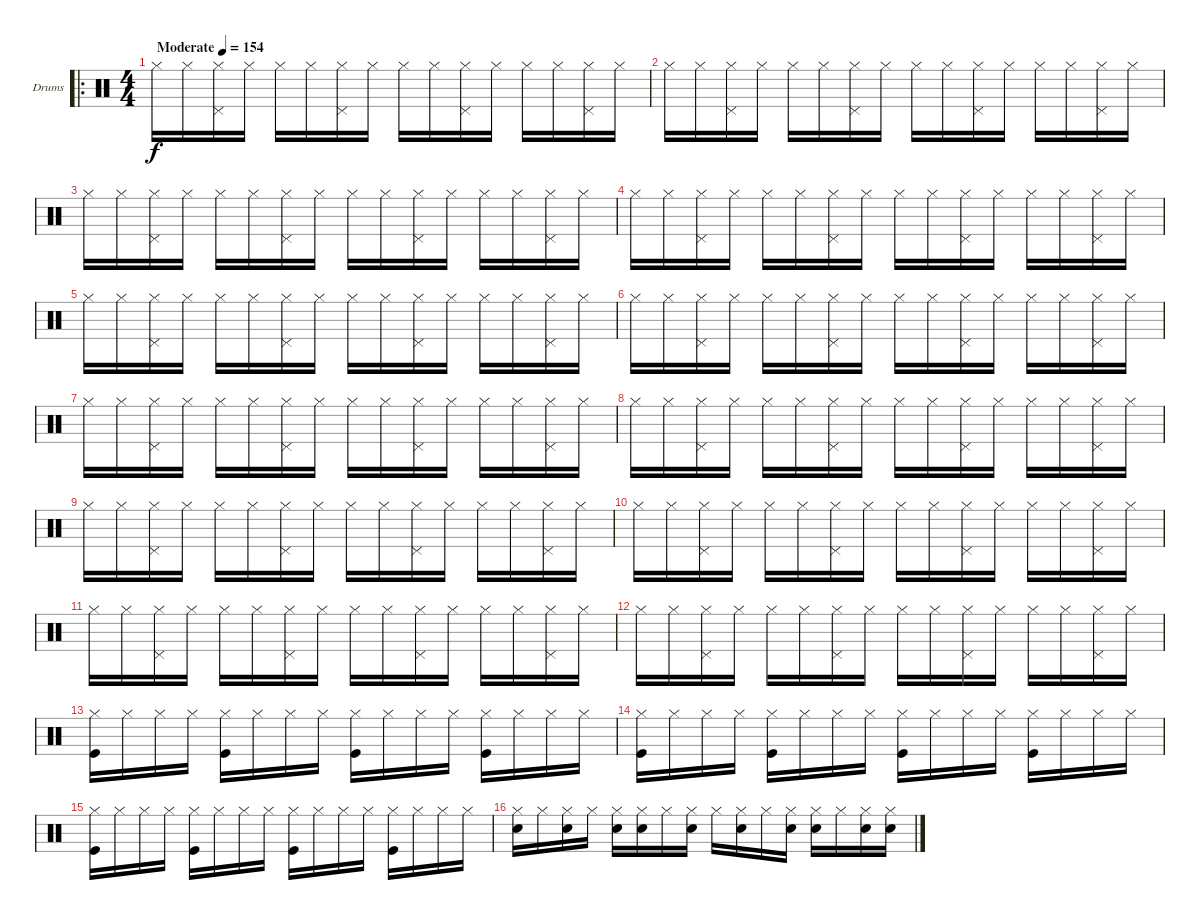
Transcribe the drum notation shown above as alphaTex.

\bracketExtendMode groupsimilarinstruments
\firstSystemTrackNameOrientation horizontal
\otherSystemsTrackNameOrientation horizontal
\track ("Drums" "Drums") {instrument percussion}
\staff {score}
\articulation defaults
\ro
\ts (4 4)
\beaming (8 2 2 2 2)
\tempo (154 "Moderate")
\clef neutral
\ks c "Hi-Hat (closed)".16{dy f} "Hi-Hat (closed)".16
("Hi-Hat (closed)" "Pedal Hi-Hat (hit)").16 "Hi-Hat (closed)".16 "Hi-Hat (closed)".16 "Hi-Hat (closed)".16 ("Hi-Hat (closed)" "Pedal Hi-Hat (hit)").16 "Hi-Hat (closed)".16 "Hi-Hat (closed)".16 "Hi-Hat (closed)".16 ("Hi-Hat (closed)" "Pedal Hi-Hat (hit)").16 "Hi-Hat (closed)".16 "Hi-Hat (closed)".16 "Hi-Hat (closed)".16 ("Hi-Hat (closed)" "Pedal Hi-Hat (hit)").16 "Hi-Hat (closed)".16 |
"Hi-Hat (closed)".16 "Hi-Hat (closed)".16 ("Hi-Hat (closed)" "Pedal Hi-Hat (hit)").16 "Hi-Hat (closed)".16 "Hi-Hat (closed)".16 "Hi-Hat (closed)".16 ("Hi-Hat (closed)" "Pedal Hi-Hat (hit)").16 "Hi-Hat (closed)".16 "Hi-Hat (closed)".16 "Hi-Hat (closed)".16 ("Hi-Hat (closed)" "Pedal Hi-Hat (hit)").16 "Hi-Hat (closed)".16 "Hi-Hat (closed)".16 "Hi-Hat (closed)".16 ("Hi-Hat (closed)" "Pedal Hi-Hat (hit)").16 "Hi-Hat (closed)".16 |
"Hi-Hat (closed)".16 "Hi-Hat (closed)".16 ("Hi-Hat (closed)" "Pedal Hi-Hat (hit)").16 "Hi-Hat (closed)".16 "Hi-Hat (closed)".16 "Hi-Hat (closed)".16 ("Hi-Hat (closed)" "Pedal Hi-Hat (hit)").16 "Hi-Hat (closed)".16 "Hi-Hat (closed)".16 "Hi-Hat (closed)".16 ("Hi-Hat (closed)" "Pedal Hi-Hat (hit)").16 "Hi-Hat (closed)".16 "Hi-Hat (closed)".16 "Hi-Hat (closed)".16 ("Hi-Hat (closed)" "Pedal Hi-Hat (hit)").16 "Hi-Hat (closed)".16 |
"Hi-Hat (closed)".16 "Hi-Hat (closed)".16 ("Hi-Hat (closed)" "Pedal Hi-Hat (hit)").16 "Hi-Hat (closed)".16 "Hi-Hat (closed)".16 "Hi-Hat (closed)".16 ("Hi-Hat (closed)" "Pedal Hi-Hat (hit)").16 "Hi-Hat (closed)".16 "Hi-Hat (closed)".16 "Hi-Hat (closed)".16 ("Hi-Hat (closed)" "Pedal Hi-Hat (hit)").16 "Hi-Hat (closed)".16 "Hi-Hat (closed)".16 "Hi-Hat (closed)".16 ("Hi-Hat (closed)" "Pedal Hi-Hat (hit)").16 "Hi-Hat (closed)".16 |
"Hi-Hat (closed)".16 "Hi-Hat (closed)".16 ("Hi-Hat (closed)" "Pedal Hi-Hat (hit)").16 "Hi-Hat (closed)".16 "Hi-Hat (closed)".16 "Hi-Hat (closed)".16 ("Hi-Hat (closed)" "Pedal Hi-Hat (hit)").16 "Hi-Hat (closed)".16 "Hi-Hat (closed)".16 "Hi-Hat (closed)".16 ("Hi-Hat (closed)" "Pedal Hi-Hat (hit)").16 "Hi-Hat (closed)".16 "Hi-Hat (closed)".16 "Hi-Hat (closed)".16 ("Hi-Hat (closed)" "Pedal Hi-Hat (hit)").16 "Hi-Hat (closed)".16 |
"Hi-Hat (closed)".16 "Hi-Hat (closed)".16 ("Hi-Hat (closed)" "Pedal Hi-Hat (hit)").16 "Hi-Hat (closed)".16 "Hi-Hat (closed)".16 "Hi-Hat (closed)".16 ("Hi-Hat (closed)" "Pedal Hi-Hat (hit)").16 "Hi-Hat (closed)".16 "Hi-Hat (closed)".16 "Hi-Hat (closed)".16 ("Hi-Hat (closed)" "Pedal Hi-Hat (hit)").16 "Hi-Hat (closed)".16 "Hi-Hat (closed)".16 "Hi-Hat (closed)".16 ("Hi-Hat (closed)" "Pedal Hi-Hat (hit)").16 "Hi-Hat (closed)".16 |
"Hi-Hat (closed)".16 "Hi-Hat (closed)".16 ("Hi-Hat (closed)" "Pedal Hi-Hat (hit)").16 "Hi-Hat (closed)".16 "Hi-Hat (closed)".16 "Hi-Hat (closed)".16 ("Hi-Hat (closed)" "Pedal Hi-Hat (hit)").16 "Hi-Hat (closed)".16 "Hi-Hat (closed)".16 "Hi-Hat (closed)".16 ("Hi-Hat (closed)" "Pedal Hi-Hat (hit)").16 "Hi-Hat (closed)".16 "Hi-Hat (closed)".16 "Hi-Hat (closed)".16 ("Hi-Hat (closed)" "Pedal Hi-Hat (hit)").16 "Hi-Hat (closed)".16 |
"Hi-Hat (closed)".16 "Hi-Hat (closed)".16 ("Hi-Hat (closed)" "Pedal Hi-Hat (hit)").16 "Hi-Hat (closed)".16 "Hi-Hat (closed)".16 "Hi-Hat (closed)".16 ("Hi-Hat (closed)" "Pedal Hi-Hat (hit)").16 "Hi-Hat (closed)".16 "Hi-Hat (closed)".16 "Hi-Hat (closed)".16 ("Hi-Hat (closed)" "Pedal Hi-Hat (hit)").16 "Hi-Hat (closed)".16 "Hi-Hat (closed)".16 "Hi-Hat (closed)".16 ("Hi-Hat (closed)" "Pedal Hi-Hat (hit)").16 "Hi-Hat (closed)".16 |
"Hi-Hat (closed)".16 "Hi-Hat (closed)".16 ("Hi-Hat (closed)" "Pedal Hi-Hat (hit)").16 "Hi-Hat (closed)".16 "Hi-Hat (closed)".16 "Hi-Hat (closed)".16 ("Hi-Hat (closed)" "Pedal Hi-Hat (hit)").16 "Hi-Hat (closed)".16 "Hi-Hat (closed)".16 "Hi-Hat (closed)".16 ("Hi-Hat (closed)" "Pedal Hi-Hat (hit)").16 "Hi-Hat (closed)".16 "Hi-Hat (closed)".16 "Hi-Hat (closed)".16 ("Hi-Hat (closed)" "Pedal Hi-Hat (hit)").16 "Hi-Hat (closed)".16 |
"Hi-Hat (closed)".16 "Hi-Hat (closed)".16 ("Hi-Hat (closed)" "Pedal Hi-Hat (hit)").16 "Hi-Hat (closed)".16 "Hi-Hat (closed)".16 "Hi-Hat (closed)".16 ("Hi-Hat (closed)" "Pedal Hi-Hat (hit)").16 "Hi-Hat (closed)".16 "Hi-Hat (closed)".16 "Hi-Hat (closed)".16 ("Hi-Hat (closed)" "Pedal Hi-Hat (hit)").16 "Hi-Hat (closed)".16 "Hi-Hat (closed)".16 "Hi-Hat (closed)".16 ("Hi-Hat (closed)" "Pedal Hi-Hat (hit)").16 "Hi-Hat (closed)".16 |
"Hi-Hat (closed)".16 "Hi-Hat (closed)".16 ("Hi-Hat (closed)" "Pedal Hi-Hat (hit)").16 "Hi-Hat (closed)".16 "Hi-Hat (closed)".16 "Hi-Hat (closed)".16 ("Hi-Hat (closed)" "Pedal Hi-Hat (hit)").16 "Hi-Hat (closed)".16 "Hi-Hat (closed)".16 "Hi-Hat (closed)".16 ("Hi-Hat (closed)" "Pedal Hi-Hat (hit)").16 "Hi-Hat (closed)".16 "Hi-Hat (closed)".16 "Hi-Hat (closed)".16 ("Hi-Hat (closed)" "Pedal Hi-Hat (hit)").16 "Hi-Hat (closed)".16 |
"Hi-Hat (closed)".16 "Hi-Hat (closed)".16 ("Hi-Hat (closed)" "Pedal Hi-Hat (hit)").16 "Hi-Hat (closed)".16 "Hi-Hat (closed)".16 "Hi-Hat (closed)".16 ("Hi-Hat (closed)" "Pedal Hi-Hat (hit)").16 "Hi-Hat (closed)".16 "Hi-Hat (closed)".16 "Hi-Hat (closed)".16 ("Hi-Hat (closed)" "Pedal Hi-Hat (hit)").16 "Hi-Hat (closed)".16 "Hi-Hat (closed)".16 "Hi-Hat (closed)".16 ("Hi-Hat (closed)" "Pedal Hi-Hat (hit)").16 "Hi-Hat (closed)".16 |
("Kick (hit)" "Hi-Hat (closed)").16 "Hi-Hat (closed)".16 "Hi-Hat (closed)".16 "Hi-Hat (closed)".16 ("Kick (hit)" "Hi-Hat (closed)").16 "Hi-Hat (closed)".16 "Hi-Hat (closed)".16 "Hi-Hat (closed)".16 ("Kick (hit)" "Hi-Hat (closed)").16 "Hi-Hat (closed)".16 "Hi-Hat (closed)".16 "Hi-Hat (closed)".16 ("Kick (hit)" "Hi-Hat (closed)").16 "Hi-Hat (closed)".16 "Hi-Hat (closed)".16 "Hi-Hat (closed)".16 |
("Kick (hit)" "Hi-Hat (closed)").16 "Hi-Hat (closed)".16 "Hi-Hat (closed)".16 "Hi-Hat (closed)".16 ("Kick (hit)" "Hi-Hat (closed)").16 "Hi-Hat (closed)".16 "Hi-Hat (closed)".16 "Hi-Hat (closed)".16 ("Kick (hit)" "Hi-Hat (closed)").16 "Hi-Hat (closed)".16 "Hi-Hat (closed)".16 "Hi-Hat (closed)".16 ("Kick (hit)" "Hi-Hat (closed)").16 "Hi-Hat (closed)".16 "Hi-Hat (closed)".16 "Hi-Hat (closed)".16 |
("Kick (hit)" "Hi-Hat (closed)").16 "Hi-Hat (closed)".16 "Hi-Hat (closed)".16 "Hi-Hat (closed)".16 ("Kick (hit)" "Hi-Hat (closed)").16 "Hi-Hat (closed)".16 "Hi-Hat (closed)".16 "Hi-Hat (closed)".16 ("Kick (hit)" "Hi-Hat (closed)").16 "Hi-Hat (closed)".16 "Hi-Hat (closed)".16 "Hi-Hat (closed)".16 ("Kick (hit)" "Hi-Hat (closed)").16 "Hi-Hat (closed)".16 "Hi-Hat (closed)".16 "Hi-Hat (closed)".16 |
("Snare (hit) 2" "Hi-Hat (closed)").16 "Hi-Hat (closed)".16 ("Snare (hit) 2" "Hi-Hat (closed)").16 "Hi-Hat (closed)".16 ("Snare (hit) 2" "Hi-Hat (closed)").16 ("Snare (hit) 2" "Hi-Hat (closed)").16 "Hi-Hat (closed)".16 ("Snare (hit) 2" "Hi-Hat (closed)").16 "Hi-Hat (closed)".16 ("Snare (hit) 2" "Hi-Hat (closed)").16 "Hi-Hat (closed)".16 ("Snare (hit) 2" "Hi-Hat (closed)").16 ("Snare (hit) 2" "Hi-Hat (closed)").16 "Hi-Hat (closed)".16 ("Snare (hit) 2" "Hi-Hat (closed)").16 ("Snare (hit) 2" "Hi-Hat (closed)").16
